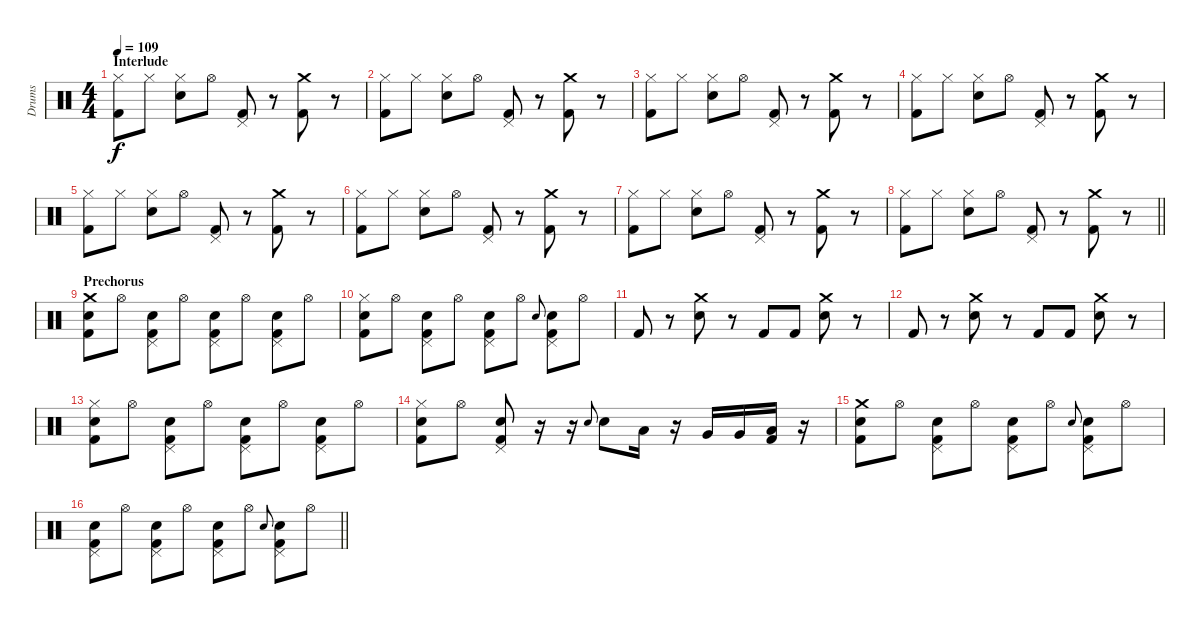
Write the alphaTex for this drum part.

\track ("Drums" "Drums") {instrument percussion}
\staff {score}
\articulation defaults
\ts (4 4)
\section ("" "Interlude")
\tempo 109
\clef neutral
\ks c
("Hi-Hat (closed)" "Kick (hit) 2").8{dy f} "Hi-Hat (closed)".8 ("Hi-Hat (closed)" "Snare (hit) 2").8 "Hi-Hat (open)".8 ("Pedal Hi-Hat (hit)" "Kick (hit) 2").8 r.8 ("Crash medium (hit)" "Kick (hit) 2").8 r.8 |
("Hi-Hat (closed)" "Kick (hit) 2").8 "Hi-Hat (closed)".8 ("Hi-Hat (closed)" "Snare (hit) 2").8 "Hi-Hat (open)".8 ("Pedal Hi-Hat (hit)" "Kick (hit) 2").8 r.8 ("Crash medium (hit)" "Kick (hit) 2").8 r.8 |
("Hi-Hat (closed)" "Kick (hit) 2").8 "Hi-Hat (closed)".8 ("Hi-Hat (closed)" "Snare (hit) 2").8 "Hi-Hat (open)".8 ("Pedal Hi-Hat (hit)" "Kick (hit) 2").8 r.8 ("Crash medium (hit)" "Kick (hit) 2").8 r.8 |
("Hi-Hat (closed)" "Kick (hit) 2").8 "Hi-Hat (closed)".8 ("Hi-Hat (closed)" "Snare (hit) 2").8 "Hi-Hat (open)".8 ("Pedal Hi-Hat (hit)" "Kick (hit) 2").8 r.8 ("Crash medium (hit)" "Kick (hit) 2").8 r.8 |
("Hi-Hat (closed)" "Kick (hit) 2").8 "Hi-Hat (closed)".8 ("Hi-Hat (closed)" "Snare (hit) 2").8 "Hi-Hat (open)".8 ("Pedal Hi-Hat (hit)" "Kick (hit) 2").8 r.8 ("Crash medium (hit)" "Kick (hit) 2").8 r.8 |
("Hi-Hat (closed)" "Kick (hit) 2").8 "Hi-Hat (closed)".8 ("Hi-Hat (closed)" "Snare (hit) 2").8 "Hi-Hat (open)".8 ("Pedal Hi-Hat (hit)" "Kick (hit) 2").8 r.8 ("Crash medium (hit)" "Kick (hit) 2").8 r.8 |
("Hi-Hat (closed)" "Kick (hit) 2").8 "Hi-Hat (closed)".8 ("Hi-Hat (closed)" "Snare (hit) 2").8 "Hi-Hat (open)".8 ("Pedal Hi-Hat (hit)" "Kick (hit) 2").8 r.8 ("Crash medium (hit)" "Kick (hit) 2").8 r.8 |
\barLineRight lightlight
("Hi-Hat (closed)" "Kick (hit) 2").8 "Hi-Hat (closed)".8 ("Hi-Hat (closed)" "Snare (hit) 2").8 "Hi-Hat (open)".8 ("Pedal Hi-Hat (hit)" "Kick (hit) 2").8 r.8 ("Crash medium (hit)" "Kick (hit) 2").8 r.8 |
\section ("" "Prechorus")
("Crash medium (hit)" "Snare (hit) 2" "Kick (hit) 2").8 "Hi-Hat (open)".8 ("Pedal Hi-Hat (hit)" "Snare (hit) 2" "Kick (hit) 2").8 "Hi-Hat (open)".8 ("Pedal Hi-Hat (hit)" "Snare (hit) 2" "Kick (hit) 2").8 "Hi-Hat (open)".8 ("Pedal Hi-Hat (hit)" "Snare (hit) 2" "Kick (hit) 2").8 "Hi-Hat (open)".8 |
("Hi-Hat (closed)" "Snare (hit) 2" "Kick (hit) 2").8 "Hi-Hat (open)".8 ("Pedal Hi-Hat (hit)" "Snare (hit) 2" "Kick (hit) 2").8 "Hi-Hat (open)".8 ("Pedal Hi-Hat (hit)" "Snare (hit) 2" "Kick (hit) 2").8 "Hi-Hat (open)".8 "Snare (hit) 2".8{gr onbeat} ("Pedal Hi-Hat (hit)" "Snare (hit) 2" "Kick (hit) 2").8 "Hi-Hat (open)".8 |
"Kick (hit) 2".8 r.8 ("Crash medium (hit)" "Snare (hit) 2").8 r.8 "Kick (hit) 2".8 "Kick (hit) 2".8 ("Crash medium (hit)" "Snare (hit) 2").8 r.8 |
"Kick (hit) 2".8 r.8 ("Crash medium (hit)" "Snare (hit) 2").8 r.8 "Kick (hit) 2".8 "Kick (hit) 2".8 ("Crash medium (hit)" "Snare (hit) 2").8 r.8 |
("Hi-Hat (closed)" "Snare (hit) 2" "Kick (hit) 2").8 "Hi-Hat (open)".8 ("Pedal Hi-Hat (hit)" "Snare (hit) 2" "Kick (hit) 2").8 "Hi-Hat (open)".8 ("Pedal Hi-Hat (hit)" "Snare (hit) 2" "Kick (hit) 2").8 "Hi-Hat (open)".8 ("Pedal Hi-Hat (hit)" "Snare (hit) 2" "Kick (hit) 2").8 "Hi-Hat (open)".8 |
("Hi-Hat (closed)" "Snare (hit) 2" "Kick (hit) 2").8 "Hi-Hat (open)".8 ("Pedal Hi-Hat (hit)" "Snare (hit) 2" "Kick (hit) 2").8 r.16 r.16 "Snare (hit) 2".8{gr onbeat} "Snare (hit) 2".8 "Low Tom (hit)".16 r.16 "Very Low Tom (hit)".16 "Very Low Tom (hit)".16 ("Low Floor Tom (hit)" "Kick (hit) 2").16 r.16 |
("Crash medium (hit)" "Snare (hit) 2" "Kick (hit) 2").8 "Hi-Hat (open)".8 ("Pedal Hi-Hat (hit)" "Snare (hit) 2" "Kick (hit) 2").8 "Hi-Hat (open)".8 ("Pedal Hi-Hat (hit)" "Snare (hit) 2" "Kick (hit) 2").8 "Hi-Hat (open)".8 "Snare (hit) 2".8{gr onbeat} ("Pedal Hi-Hat (hit)" "Snare (hit) 2" "Kick (hit) 2").8 "Hi-Hat (open)".8 |
\barLineRight lightlight
("Pedal Hi-Hat (hit)" "Snare (hit) 2" "Kick (hit) 2").8 "Hi-Hat (open)".8 ("Pedal Hi-Hat (hit)" "Snare (hit) 2" "Kick (hit) 2").8 "Hi-Hat (open)".8 ("Pedal Hi-Hat (hit)" "Snare (hit) 2" "Kick (hit) 2").8 "Hi-Hat (open)".8 "Snare (hit) 2".8{gr onbeat} ("Pedal Hi-Hat (hit)" "Snare (hit) 2" "Kick (hit) 2").8 "Hi-Hat (open)".8
